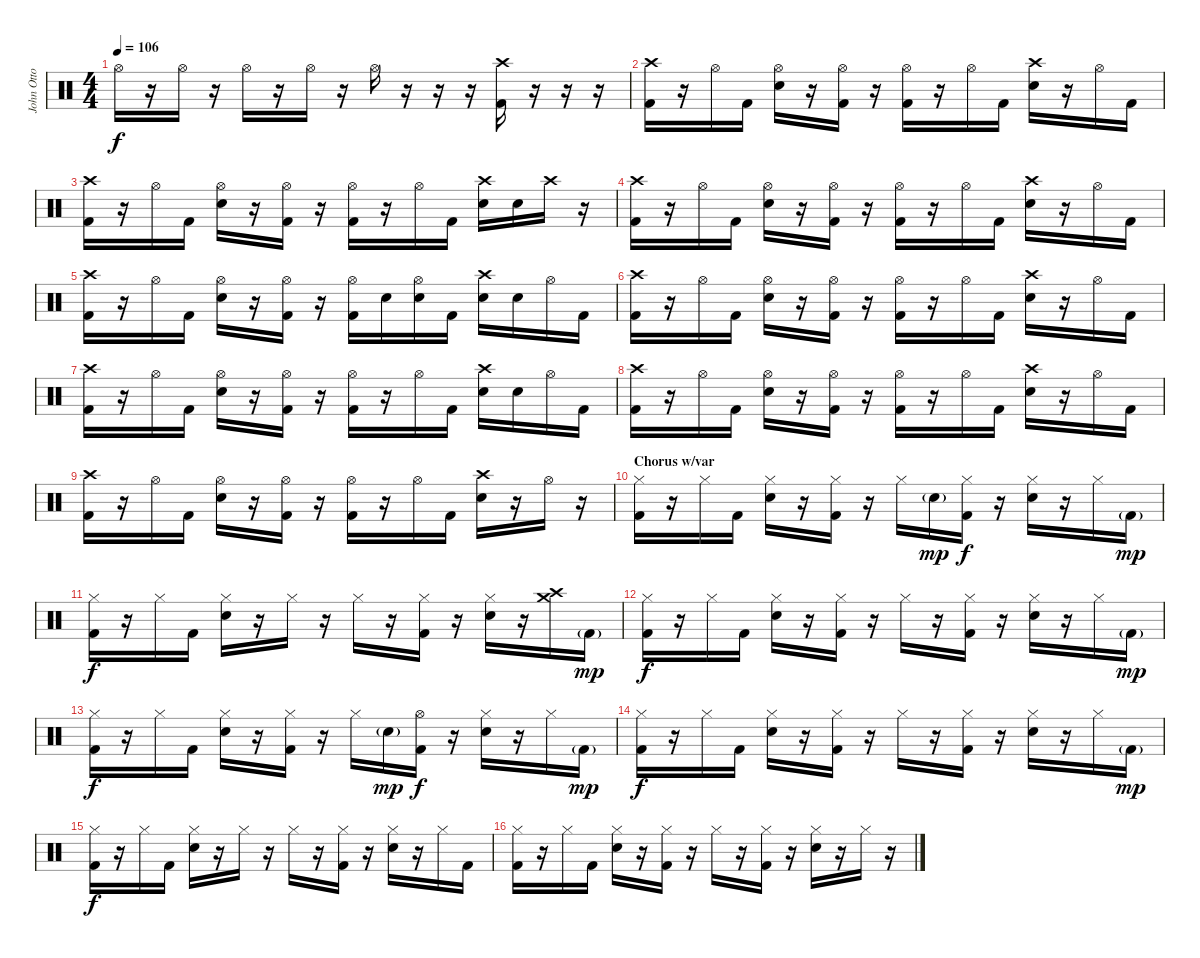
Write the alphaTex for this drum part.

\track ("John Otto" "John Otto") {instrument percussion}
\staff {score}
\articulation defaults
\ts (4 4)
\tempo 106
\clef neutral
\ks c "Hi-Hat (open)".16{dy f}
r.16 "Hi-Hat (open)".16 r.16 "Hi-Hat (open)".16 r.16 "Hi-Hat (open)".16 r.16 "Hi-Hat (open)".16 r.16 r.16 r.16 ("Crash high (hit)" "Kick (hit) 2").16 r.16 r.16 r.16 |
("Crash high (hit)" "Kick (hit) 2").16 r.16 "Hi-Hat (open)".16 "Kick (hit) 2".16 ("Hi-Hat (open)" "Snare (hit) 2").16 r.16 ("Hi-Hat (open)" "Kick (hit) 2").16 r.16 ("Hi-Hat (open)" "Kick (hit) 2").16 r.16 "Hi-Hat (open)".16 "Kick (hit) 2".16 ("Crash high (hit)" "Snare (hit) 2").16 r.16 "Hi-Hat (open)".16 "Kick (hit) 2".16 |
("Crash high (hit)" "Kick (hit) 2").16 r.16 "Hi-Hat (open)".16 "Kick (hit) 2".16 ("Hi-Hat (open)" "Snare (hit) 2").16 r.16 ("Hi-Hat (open)" "Kick (hit) 2").16 r.16 ("Hi-Hat (open)" "Kick (hit) 2").16 r.16 "Hi-Hat (open)".16 "Kick (hit) 2".16 ("Crash high (hit)" "Snare (hit) 2").16 "Snare (hit) 2".16 "Crash high (hit)".16 r.16 |
("Crash high (hit)" "Kick (hit) 2").16 r.16 "Hi-Hat (open)".16 "Kick (hit) 2".16 ("Hi-Hat (open)" "Snare (hit) 2").16 r.16 ("Hi-Hat (open)" "Kick (hit) 2").16 r.16 ("Hi-Hat (open)" "Kick (hit) 2").16 r.16 "Hi-Hat (open)".16 "Kick (hit) 2".16 ("Crash high (hit)" "Snare (hit) 2").16 r.16 "Hi-Hat (open)".16 "Kick (hit) 2".16 |
("Crash high (hit)" "Kick (hit) 2").16 r.16 "Hi-Hat (open)".16 "Kick (hit) 2".16 ("Hi-Hat (open)" "Snare (hit) 2").16 r.16 ("Hi-Hat (open)" "Kick (hit) 2").16 r.16 ("Hi-Hat (open)" "Kick (hit) 2").16 "Snare (hit) 2".16 ("Hi-Hat (open)" "Snare (hit) 2").16 "Kick (hit) 2".16 ("Crash high (hit)" "Snare (hit) 2").16 "Snare (hit) 2".16 "Hi-Hat (open)".16 "Kick (hit) 2".16 |
("Crash high (hit)" "Kick (hit) 2").16 r.16 "Hi-Hat (open)".16 "Kick (hit) 2".16 ("Hi-Hat (open)" "Snare (hit) 2").16 r.16 ("Hi-Hat (open)" "Kick (hit) 2").16 r.16 ("Hi-Hat (open)" "Kick (hit) 2").16 r.16 "Hi-Hat (open)".16 "Kick (hit) 2".16 ("Crash high (hit)" "Snare (hit) 2").16 r.16 "Hi-Hat (open)".16 "Kick (hit) 2".16 |
("Crash high (hit)" "Kick (hit) 2").16 r.16 "Hi-Hat (open)".16 "Kick (hit) 2".16 ("Hi-Hat (open)" "Snare (hit) 2").16 r.16 ("Hi-Hat (open)" "Kick (hit) 2").16 r.16 ("Hi-Hat (open)" "Kick (hit) 2").16 r.16 "Hi-Hat (open)".16 "Kick (hit) 2".16 ("Crash high (hit)" "Snare (hit) 2").16 "Snare (hit) 2".16 "Hi-Hat (open)".16 "Kick (hit) 2".16 |
("Crash high (hit)" "Kick (hit) 2").16 r.16 "Hi-Hat (open)".16 "Kick (hit) 2".16 ("Hi-Hat (open)" "Snare (hit) 2").16 r.16 ("Hi-Hat (open)" "Kick (hit) 2").16 r.16 ("Hi-Hat (open)" "Kick (hit) 2").16 r.16 "Hi-Hat (open)".16 "Kick (hit) 2".16 ("Crash high (hit)" "Snare (hit) 2").16 r.16 "Hi-Hat (open)".16 "Kick (hit) 2".16 |
("Crash high (hit)" "Kick (hit) 2").16 r.16 "Hi-Hat (open)".16 "Kick (hit) 2".16 ("Hi-Hat (open)" "Snare (hit) 2").16 r.16 ("Hi-Hat (open)" "Kick (hit) 2").16 r.16 ("Hi-Hat (open)" "Kick (hit) 2").16 r.16 "Hi-Hat (open)".16 "Kick (hit) 2".16 ("Crash high (hit)" "Snare (hit) 2").16 r.16 "Hi-Hat (open)".16 r.16 |
\section ("" "Chorus w/var")
("Hi-Hat (closed)" "Kick (hit) 2").16 r.16 "Hi-Hat (closed)".16 "Kick (hit) 2".16 ("Hi-Hat (closed)" "Snare (hit) 2").16 r.16 ("Hi-Hat (closed)" "Kick (hit) 2").16 r.16 "Hi-Hat (closed)".16 "Snare (hit) 2"{g}.16{dy mp} ("Hi-Hat (closed)" "Kick (hit) 2").16{dy f} r.16 ("Hi-Hat (closed)" "Snare (hit) 2").16 r.16 "Hi-Hat (closed)".16 "Kick (hit) 2"{g}.16{dy mp} |
("Hi-Hat (closed)" "Kick (hit) 2").16{dy f} r.16 "Hi-Hat (closed)".16 "Kick (hit) 2".16 ("Hi-Hat (closed)" "Snare (hit) 2").16 r.16 "Hi-Hat (closed)".16 r.16 "Hi-Hat (closed)".16 r.16 ("Hi-Hat (closed)" "Kick (hit) 2").16 r.16 ("Hi-Hat (closed)" "Snare (hit) 2").16 r.16 ("Crash high (hit)" "Crash medium (hit)").16 "Kick (hit) 2"{g}.16{dy mp} |
("Hi-Hat (closed)" "Kick (hit) 2").16{dy f} r.16 "Hi-Hat (closed)".16 "Kick (hit) 2".16 ("Hi-Hat (closed)" "Snare (hit) 2").16 r.16 ("Hi-Hat (closed)" "Kick (hit) 2").16 r.16 "Hi-Hat (closed)".16 r.16 ("Hi-Hat (closed)" "Kick (hit) 2").16 r.16 ("Hi-Hat (closed)" "Snare (hit) 2").16 r.16 "Hi-Hat (closed)".16 "Kick (hit) 2"{g}.16{dy mp} |
("Hi-Hat (closed)" "Kick (hit) 2").16{dy f} r.16 "Hi-Hat (closed)".16 "Kick (hit) 2".16 ("Hi-Hat (closed)" "Snare (hit) 2").16 r.16 ("Hi-Hat (closed)" "Kick (hit) 2").16 r.16 "Hi-Hat (closed)".16 "Snare (hit) 2"{g}.16{dy mp} ("Hi-Hat (open)" "Kick (hit) 2").16{dy f} r.16 ("Hi-Hat (closed)" "Snare (hit) 2").16 r.16 "Hi-Hat (closed)".16 "Kick (hit) 2"{g}.16{dy mp} |
("Hi-Hat (closed)" "Kick (hit) 2").16{dy f} r.16 "Hi-Hat (closed)".16 "Kick (hit) 2".16 ("Hi-Hat (closed)" "Snare (hit) 2").16 r.16 ("Hi-Hat (closed)" "Kick (hit) 2").16 r.16 "Hi-Hat (closed)".16 r.16 ("Hi-Hat (closed)" "Kick (hit) 2").16 r.16 ("Hi-Hat (closed)" "Snare (hit) 2").16 r.16 "Hi-Hat (closed)".16 "Kick (hit) 2"{g}.16{dy mp} |
("Hi-Hat (closed)" "Kick (hit) 2").16{dy f} r.16 "Hi-Hat (closed)".16 "Kick (hit) 2".16 ("Hi-Hat (closed)" "Snare (hit) 2").16 r.16 "Hi-Hat (closed)".16 r.16 "Hi-Hat (closed)".16 r.16 ("Hi-Hat (closed)" "Kick (hit) 2").16 r.16 ("Hi-Hat (closed)" "Snare (hit) 2").16 r.16 "Hi-Hat (closed)".16 "Kick (hit) 2".16 |
("Hi-Hat (closed)" "Kick (hit) 2").16 r.16 "Hi-Hat (closed)".16 "Kick (hit) 2".16 ("Hi-Hat (closed)" "Snare (hit) 2").16 r.16 ("Hi-Hat (closed)" "Kick (hit) 2").16 r.16 "Hi-Hat (closed)".16 r.16 ("Hi-Hat (closed)" "Kick (hit) 2").16 r.16 ("Hi-Hat (closed)" "Snare (hit) 2").16 r.16 "Hi-Hat (closed)".16 r.16
